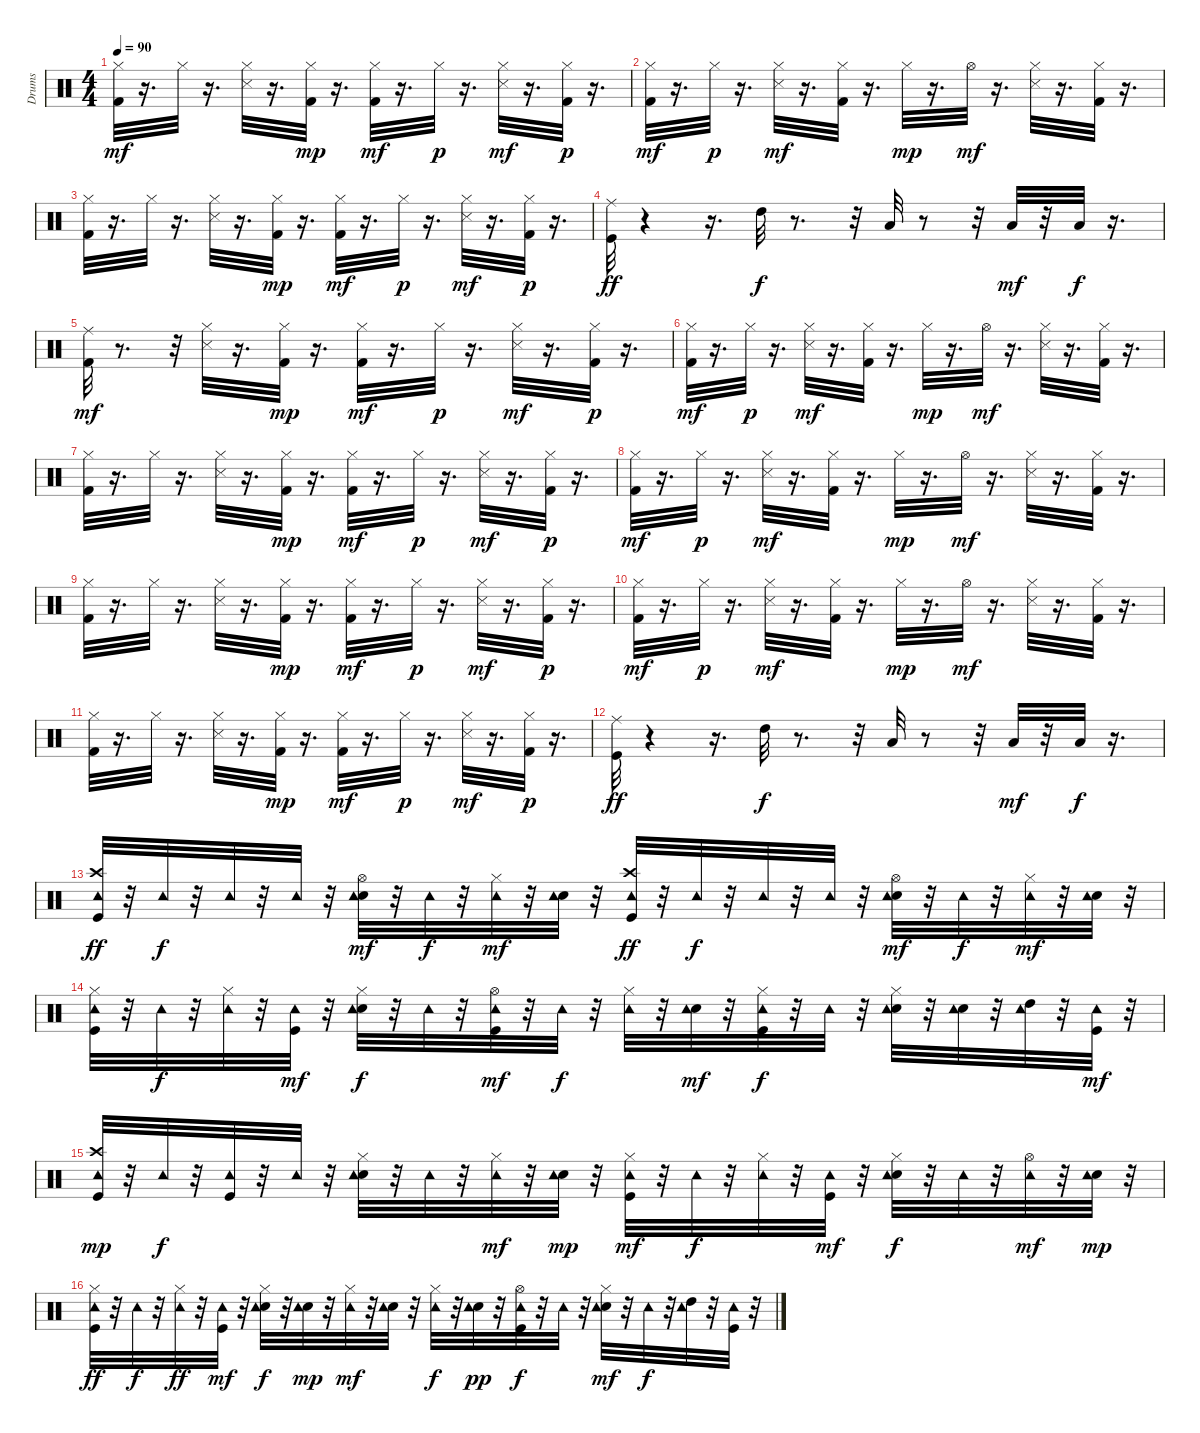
\track ("Drums               " "Drums     ") {instrument percussion}
\staff {score}
\articulation defaults
\ts (4 4)
\tempo 90
\clef neutral
\ks c
("Hi-Hat (closed)" "Kick (hit) 2").32{dy mf} r.16{d} "Hi-Hat (closed)".32 r.16{d} ("Snare (side stick) 3" "Hi-Hat (closed)").32 r.16{d} ("Hi-Hat (closed)" "Kick (hit) 2").32{dy mp} r.16{d} ("Kick (hit) 2" "Hi-Hat (closed)").32{dy mf} r.16{d} "Hi-Hat (closed)".32{dy p} r.16{d} ("Snare (side stick) 3" "Hi-Hat (closed)").32{dy mf} r.16{d} ("Kick (hit) 2" "Hi-Hat (closed)").32{dy p} r.16{d} |
("Kick (hit) 2" "Hi-Hat (closed)").32{dy mf} r.16{d} "Hi-Hat (closed)".32{dy p} r.16{d} ("Hi-Hat (closed)" "Snare (side stick) 3").32{dy mf} r.16{d} ("Hi-Hat (closed)" "Kick (hit) 2").32 r.16{d} "Hi-Hat (closed)".32{dy mp} r.16{d} "Hi-Hat (open)".32{dy mf} r.16{d} ("Hi-Hat (closed)" "Snare (side stick) 3").32 r.16{d} ("Hi-Hat (closed)" "Kick (hit) 2").32 r.16{d} |
("Hi-Hat (closed)" "Kick (hit) 2").32 r.16{d} "Hi-Hat (closed)".32 r.16{d} ("Snare (side stick) 3" "Hi-Hat (closed)").32 r.16{d} ("Hi-Hat (closed)" "Kick (hit) 2").32{dy mp} r.16{d} ("Kick (hit) 2" "Hi-Hat (closed)").32{dy mf} r.16{d} "Hi-Hat (closed)".32{dy p} r.16{d} ("Snare (side stick) 3" "Hi-Hat (closed)").32{dy mf} r.16{d} ("Kick (hit) 2" "Hi-Hat (closed)").32{dy p} r.16{d} |
("Ride (middle)" "Kick (hit)").32{dy ff} r.4 r.16{d} "High Tom (hit)".32{dy f} r.8{d} r.32 "Low Tom (hit)".32 r.8 r.32 "Low Floor Tom (hit)".32{dy mf} r.32 "Low Floor Tom (hit)".32{dy f} r.16{d} |
("Ride (middle)" "Kick (hit) 2").32{dy mf} r.8{d} r.32 ("Snare (side stick) 3" "Hi-Hat (closed)").32 r.16{d} ("Hi-Hat (closed)" "Kick (hit) 2").32{dy mp} r.16{d} ("Kick (hit) 2" "Hi-Hat (closed)").32{dy mf} r.16{d} "Hi-Hat (closed)".32{dy p} r.16{d} ("Snare (side stick) 3" "Hi-Hat (closed)").32{dy mf} r.16{d} ("Kick (hit) 2" "Hi-Hat (closed)").32{dy p} r.16{d} |
("Kick (hit) 2" "Hi-Hat (closed)").32{dy mf} r.16{d} "Hi-Hat (closed)".32{dy p} r.16{d} ("Hi-Hat (closed)" "Snare (side stick) 3").32{dy mf} r.16{d} ("Hi-Hat (closed)" "Kick (hit) 2").32 r.16{d} "Hi-Hat (closed)".32{dy mp} r.16{d} "Hi-Hat (open)".32{dy mf} r.16{d} ("Hi-Hat (closed)" "Snare (side stick) 3").32 r.16{d} ("Hi-Hat (closed)" "Kick (hit) 2").32 r.16{d} |
("Hi-Hat (closed)" "Kick (hit) 2").32 r.16{d} "Hi-Hat (closed)".32 r.16{d} ("Snare (side stick) 3" "Hi-Hat (closed)").32 r.16{d} ("Hi-Hat (closed)" "Kick (hit) 2").32{dy mp} r.16{d} ("Kick (hit) 2" "Hi-Hat (closed)").32{dy mf} r.16{d} "Hi-Hat (closed)".32{dy p} r.16{d} ("Snare (side stick) 3" "Hi-Hat (closed)").32{dy mf} r.16{d} ("Kick (hit) 2" "Hi-Hat (closed)").32{dy p} r.16{d} |
("Kick (hit) 2" "Hi-Hat (closed)").32{dy mf} r.16{d} "Hi-Hat (closed)".32{dy p} r.16{d} ("Hi-Hat (closed)" "Snare (side stick) 3").32{dy mf} r.16{d} ("Hi-Hat (closed)" "Kick (hit) 2").32 r.16{d} "Hi-Hat (closed)".32{dy mp} r.16{d} "Hi-Hat (open)".32{dy mf} r.16{d} ("Hi-Hat (closed)" "Snare (side stick) 3").32 r.16{d} ("Hi-Hat (closed)" "Kick (hit) 2").32 r.16{d} |
("Hi-Hat (closed)" "Kick (hit) 2").32 r.16{d} "Hi-Hat (closed)".32 r.16{d} ("Snare (side stick) 3" "Hi-Hat (closed)").32 r.16{d} ("Hi-Hat (closed)" "Kick (hit) 2").32{dy mp} r.16{d} ("Kick (hit) 2" "Hi-Hat (closed)").32{dy mf} r.16{d} "Hi-Hat (closed)".32{dy p} r.16{d} ("Snare (side stick) 3" "Hi-Hat (closed)").32{dy mf} r.16{d} ("Kick (hit) 2" "Hi-Hat (closed)").32{dy p} r.16{d} |
("Kick (hit) 2" "Hi-Hat (closed)").32{dy mf} r.16{d} "Hi-Hat (closed)".32{dy p} r.16{d} ("Hi-Hat (closed)" "Snare (side stick) 3").32{dy mf} r.16{d} ("Hi-Hat (closed)" "Kick (hit) 2").32 r.16{d} "Hi-Hat (closed)".32{dy mp} r.16{d} "Hi-Hat (open)".32{dy mf} r.16{d} ("Hi-Hat (closed)" "Snare (side stick) 3").32 r.16{d} ("Hi-Hat (closed)" "Kick (hit) 2").32 r.16{d} |
("Hi-Hat (closed)" "Kick (hit) 2").32 r.16{d} "Hi-Hat (closed)".32 r.16{d} ("Snare (side stick) 3" "Hi-Hat (closed)").32 r.16{d} ("Hi-Hat (closed)" "Kick (hit) 2").32{dy mp} r.16{d} ("Kick (hit) 2" "Hi-Hat (closed)").32{dy mf} r.16{d} "Hi-Hat (closed)".32{dy p} r.16{d} ("Snare (side stick) 3" "Hi-Hat (closed)").32{dy mf} r.16{d} ("Kick (hit) 2" "Hi-Hat (closed)").32{dy p} r.16{d} |
("Ride (middle)" "Kick (hit)").32{dy ff} r.4 r.16{d} "High Tom (hit)".32{dy f} r.8{d} r.32 "Low Tom (hit)".32 r.8 r.32 "Low Floor Tom (hit)".32{dy mf} r.32 "Low Floor Tom (hit)".32{dy f} r.16{d} |
("Crash high (hit)" "Kick (hit)" "Tambourine (hit)").32{dy ff} r.32 "Tambourine (hit)".32{dy f} r.32 "Tambourine (hit)".32 r.32 "Tambourine (hit)".32 r.32 ("Electric Snare (hit)" "Hi-Hat (open)" "Tambourine (hit)").32{dy mf} r.32 "Tambourine (hit)".32{dy f} r.32 ("Hi-Hat (closed)" "Tambourine (hit)").32{dy mf} r.32 ("Electric Snare (hit)" "Tambourine (hit)").32 r.32 ("Crash high (hit)" "Kick (hit)" "Tambourine (hit)").32{dy ff} r.32 "Tambourine (hit)".32{dy f} r.32 "Tambourine (hit)".32 r.32 "Tambourine (hit)".32 r.32 ("Electric Snare (hit)" "Hi-Hat (open)" "Tambourine (hit)").32{dy mf} r.32 "Tambourine (hit)".32{dy f} r.32 ("Hi-Hat (closed)" "Tambourine (hit)").32{dy mf} r.32 ("Electric Snare (hit)" "Tambourine (hit)").32 r.32 |
("Hi-Hat (closed)" "Kick (hit)" "Tambourine (hit)").32 r.32 "Tambourine (hit)".32{dy f} r.32 ("Hi-Hat (closed)" "Tambourine (hit)").32 r.32 ("Kick (hit)" "Tambourine (hit)").32{dy mf} r.32 ("Electric Snare (hit)" "Hi-Hat (closed)" "Tambourine (hit)").32{dy f} r.32 "Tambourine (hit)".32 r.32 ("Kick (hit)" "Hi-Hat (open)" "Tambourine (hit)").32{dy mf} r.32 "Tambourine (hit)".32{dy f} r.32 ("Hi-Hat (closed)" "Tambourine (hit)").32 r.32 ("Electric Snare (hit)" "Tambourine (hit)").32{dy mf} r.32 ("Hi-Hat (closed)" "Kick (hit)" "Tambourine (hit)").32{dy f} r.32 "Tambourine (hit)".32 r.32 ("Electric Snare (hit)" "Hi-Hat (closed)" "Tambourine (hit)").32 r.32 ("Electric Snare (hit)" "Tambourine (hit)").32 r.32 ("High Tom (hit)" "Tambourine (hit)").32 r.32 ("Kick (hit)" "Tambourine (hit)").32{dy mf} r.32 |
("Crash high (hit)" "Kick (hit)" "Tambourine (hit)").32{dy mp} r.32 "Tambourine (hit)".32{dy f} r.32 ("Kick (hit)" "Tambourine (hit)").32 r.32 "Tambourine (hit)".32 r.32 ("Hi-Hat (closed)" "Electric Snare (hit)" "Tambourine (hit)").32 r.32 "Tambourine (hit)".32 r.32 ("Hi-Hat (closed)" "Tambourine (hit)").32{dy mf} r.32 ("Electric Snare (hit)" "Tambourine (hit)").32{dy mp} r.32 ("Hi-Hat (closed)" "Kick (hit)" "Tambourine (hit)").32{dy mf} r.32 "Tambourine (hit)".32{dy f} r.32 ("Hi-Hat (closed)" "Tambourine (hit)").32 r.32 ("Kick (hit)" "Tambourine (hit)").32{dy mf} r.32 ("Electric Snare (hit)" "Hi-Hat (closed)" "Tambourine (hit)").32{dy f} r.32 "Tambourine (hit)".32 r.32 ("Hi-Hat (open)" "Tambourine (hit)").32{dy mf} r.32 ("Electric Snare (hit)" "Tambourine (hit)").32{dy mp} r.32 |
("Hi-Hat (closed)" "Kick (hit)" "Tambourine (hit)").32{dy ff} r.32 "Tambourine (hit)".32{dy f} r.32 ("Hi-Hat (closed)" "Tambourine (hit)").32{dy ff} r.32 ("Kick (hit)" "Tambourine (hit)").32{dy mf} r.32 ("Hi-Hat (closed)" "Electric Snare (hit)" "Tambourine (hit)").32{dy f} r.32 ("Electric Snare (hit)" "Tambourine (hit)").32{dy mp} r.32 ("Hi-Hat (closed)" "Tambourine (hit)").32{dy mf} r.32 ("Electric Snare (hit)" "Tambourine (hit)").32 r.32 ("Hi-Hat (closed)" "Tambourine (hit)").32{dy f} r.32 ("Electric Snare (hit)" "Tambourine (hit)").32{dy pp} r.32 ("Hi-Hat (open)" "Kick (hit)" "Tambourine (hit)").32{dy f} r.32 "Tambourine (hit)".32 r.32 ("Electric Snare (hit)" "Hi-Hat (closed)" "Tambourine (hit)").32{dy mf} r.32 "Tambourine (hit)".32{dy f} r.32 ("High Tom (hit)" "Tambourine (hit)").32 r.32 ("Kick (hit)" "Tambourine (hit)").32 r.32
